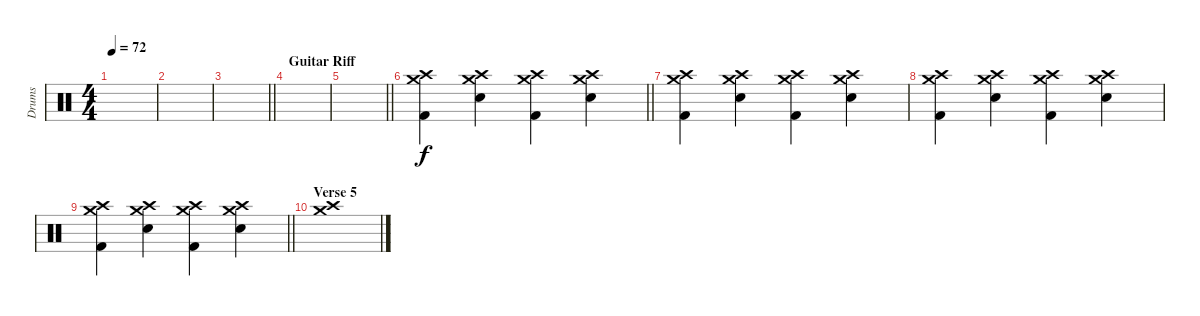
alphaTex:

\track ("Drums" "Drums") {instrument percussion}
\staff {score}
\articulation defaults
\ts (4 4)
\tempo 72
\clef neutral
\ks c
|
|
\barLineRight lightlight
|
\section ("" "Guitar Riff")
|
\barLineRight lightlight
|
\barLineRight lightlight
("Crash medium (hit)" "Crash high (hit)" "Kick (hit) 2").4 ("Crash medium (hit)" "Crash high (hit)" "Electric Snare (hit)").4 ("Crash medium (hit)" "Crash high (hit)" "Kick (hit) 2").4 ("Crash medium (hit)" "Crash high (hit)" "Electric Snare (hit)").4 |
("Crash medium (hit)" "Crash high (hit)" "Kick (hit) 2").4 ("Crash medium (hit)" "Crash high (hit)" "Electric Snare (hit)").4 ("Crash medium (hit)" "Crash high (hit)" "Kick (hit) 2").4 ("Crash medium (hit)" "Crash high (hit)" "Electric Snare (hit)").4 |
("Crash medium (hit)" "Crash high (hit)" "Kick (hit) 2").4 ("Crash medium (hit)" "Crash high (hit)" "Electric Snare (hit)").4 ("Crash medium (hit)" "Crash high (hit)" "Kick (hit) 2").4 ("Crash medium (hit)" "Crash high (hit)" "Electric Snare (hit)").4 |
\barLineRight lightlight
("Crash medium (hit)" "Crash high (hit)" "Kick (hit) 2").4 ("Crash medium (hit)" "Crash high (hit)" "Electric Snare (hit)").4 ("Crash medium (hit)" "Crash high (hit)" "Kick (hit) 2").4 ("Crash medium (hit)" "Crash high (hit)" "Electric Snare (hit)").4 |
\section ("" "Verse 5")
("Crash medium (hit)" "Crash high (hit)").1
